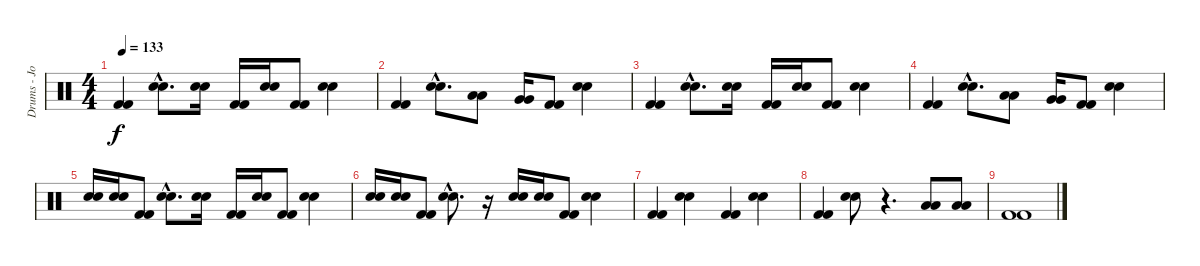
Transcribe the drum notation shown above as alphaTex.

\track ("Drums - Joe Daniels" "Drums - Jo") {instrument percussion}
\staff {score}
\articulation defaults
\ts (4 4)
\tempo 133
\clef neutral
\ks c
("Kick (hit) 2" "Kick (hit) 2").4{dy f} ("Snare (hit) 2"{hac} "Snare (hit) 2"{hac}).8{d} ("Snare (hit) 2" "Snare (hit) 2").16 ("Kick (hit) 2" "Kick (hit) 2").16 ("Snare (hit) 2" "Snare (hit) 2").16 ("Kick (hit) 2" "Kick (hit) 2").8 ("Snare (hit) 2" "Snare (hit) 2").4 |
("Kick (hit) 2" "Kick (hit) 2").4 ("Snare (hit) 2"{hac} "Snare (hit) 2"{hac}).8{d} ("Low Tom (hit)" "Low Tom (hit)").8 ("Very Low Tom (hit)" "Very Low Tom (hit)").16 ("Kick (hit) 2" "Kick (hit) 2").8 ("Snare (hit) 2" "Snare (hit) 2").4 |
("Kick (hit) 2" "Kick (hit) 2").4 ("Snare (hit) 2"{hac} "Snare (hit) 2"{hac}).8{d} ("Snare (hit) 2" "Snare (hit) 2").16 ("Kick (hit) 2" "Kick (hit) 2").16 ("Snare (hit) 2" "Snare (hit) 2").16 ("Kick (hit) 2" "Kick (hit) 2").8 ("Snare (hit) 2" "Snare (hit) 2").4 |
("Kick (hit) 2" "Kick (hit) 2").4 ("Snare (hit) 2"{hac} "Snare (hit) 2"{hac}).8{d} ("Low Tom (hit)" "Low Tom (hit)").8 ("Very Low Tom (hit)" "Very Low Tom (hit)").16 ("Kick (hit) 2" "Kick (hit) 2").8 ("Snare (hit) 2" "Snare (hit) 2").4 |
("Snare (hit) 2" "Snare (hit) 2").16 ("Snare (hit) 2" "Snare (hit) 2").16 ("Kick (hit) 2" "Kick (hit) 2").8 ("Snare (hit) 2"{hac} "Snare (hit) 2"{hac}).8{d} ("Snare (hit) 2" "Snare (hit) 2").16 ("Kick (hit) 2" "Kick (hit) 2").16 ("Snare (hit) 2" "Snare (hit) 2").16 ("Kick (hit) 2" "Kick (hit) 2").8 ("Snare (hit) 2" "Snare (hit) 2").4 |
("Snare (hit) 2" "Snare (hit) 2").16 ("Snare (hit) 2" "Snare (hit) 2").16 ("Kick (hit) 2" "Kick (hit) 2").8 ("Snare (hit) 2"{hac} "Snare (hit) 2"{hac}).8{d} r.16 ("Snare (hit) 2" "Snare (hit) 2").16 ("Snare (hit) 2" "Snare (hit) 2").16 ("Kick (hit) 2" "Kick (hit) 2").8 ("Snare (hit) 2" "Snare (hit) 2").4 |
("Kick (hit) 2" "Kick (hit) 2").4 ("Snare (hit) 2" "Snare (hit) 2").4 ("Kick (hit) 2" "Kick (hit) 2").4 ("Snare (hit) 2" "Snare (hit) 2").4 |
("Kick (hit) 2" "Kick (hit) 2").4 ("Snare (hit) 2" "Snare (hit) 2").8 r.4{d} ("Low Floor Tom (hit)" "Low Floor Tom (hit)").8 ("Low Floor Tom (hit)" "Low Floor Tom (hit)").8 |
("Kick (hit) 2" "Kick (hit) 2").1
